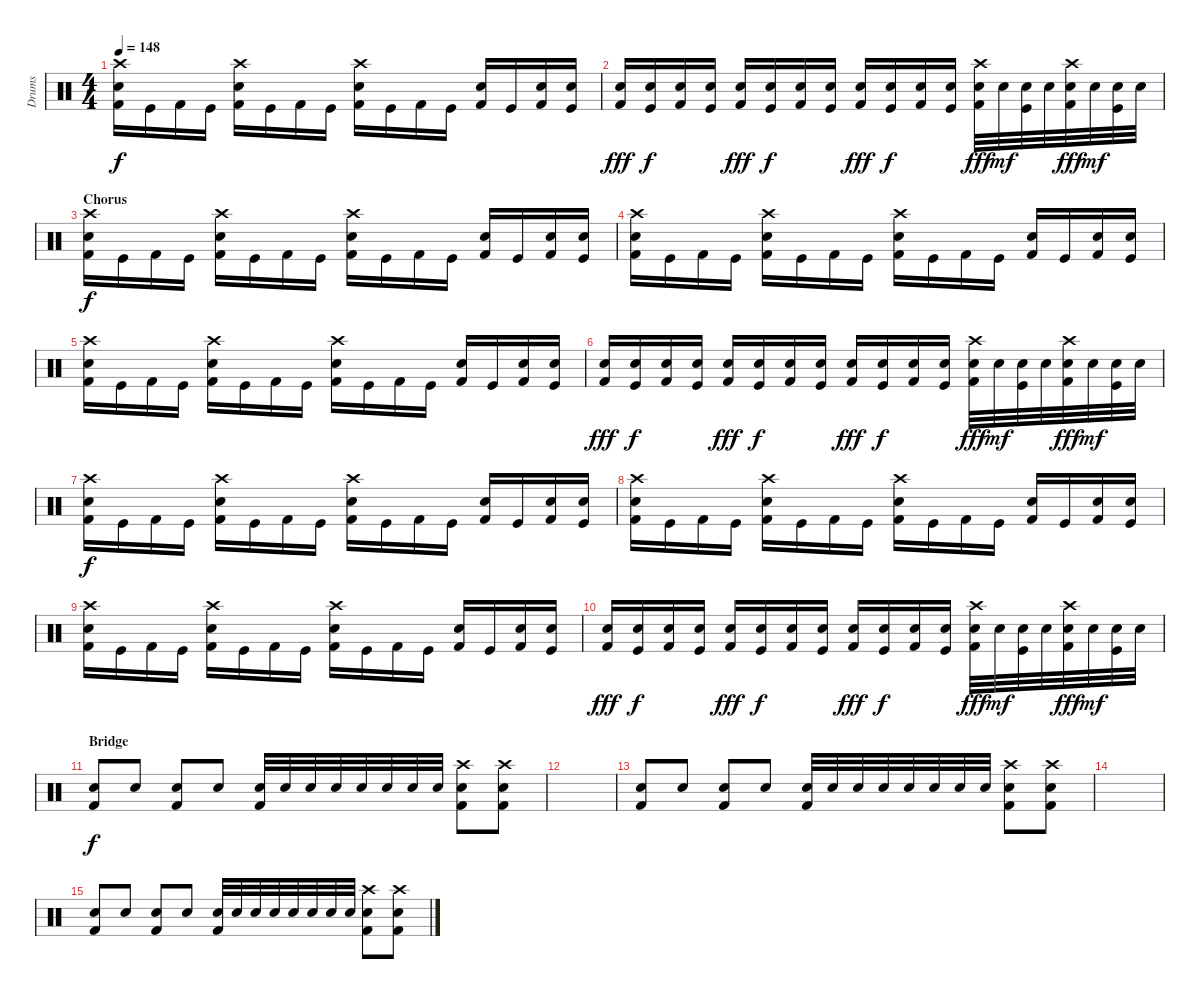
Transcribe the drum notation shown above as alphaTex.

\track ("Drums" "Drums") {instrument percussion}
\staff {score}
\articulation defaults
\ts (4 4)
\tempo 148
\clef neutral
\ks c
("Crash high (hit)" "Snare (hit) 2" "Kick (hit) 2").16{dy f} "Kick (hit)".16 "Kick (hit) 2".16 "Kick (hit)".16 ("Crash high (hit)" "Snare (hit) 2" "Kick (hit) 2").16 "Kick (hit)".16 "Kick (hit) 2".16 "Kick (hit)".16 ("Crash high (hit)" "Snare (hit) 2" "Kick (hit) 2").16 "Kick (hit)".16 "Kick (hit) 2".16 "Kick (hit)".16 ("Snare (hit) 2" "Kick (hit) 2").16 "Kick (hit)".16 ("Snare (hit) 2" "Kick (hit) 2").16 ("Snare (hit) 2" "Kick (hit)").16 |
("Snare (hit) 2" "Kick (hit) 2").16{dy fff} ("Snare (hit) 2" "Kick (hit)").16{dy f} ("Snare (hit) 2" "Kick (hit) 2").16 ("Snare (hit) 2" "Kick (hit)").16 ("Snare (hit) 2" "Kick (hit) 2").16{dy fff} ("Snare (hit) 2" "Kick (hit)").16{dy f} ("Snare (hit) 2" "Kick (hit) 2").16 ("Snare (hit) 2" "Kick (hit)").16 ("Snare (hit) 2" "Kick (hit) 2").16{dy fff} ("Snare (hit) 2" "Kick (hit)").16{dy f} ("Snare (hit) 2" "Kick (hit) 2").16 ("Snare (hit) 2" "Kick (hit)").16 ("Crash high (hit)" "Snare (hit) 2" "Kick (hit) 2").32{dy fff} "Snare (hit) 2".32{dy mf} ("Snare (hit) 2" "Kick (hit)").32 "Snare (hit) 2".32 ("Crash high (hit)" "Snare (hit) 2" "Kick (hit) 2").32{dy fff} "Snare (hit) 2".32{dy mf} ("Snare (hit) 2" "Kick (hit)").32 "Snare (hit) 2".32 |
\section ("" "Chorus")
("Crash high (hit)" "Snare (hit) 2" "Kick (hit) 2").16{dy f} "Kick (hit)".16 "Kick (hit) 2".16 "Kick (hit)".16 ("Crash high (hit)" "Snare (hit) 2" "Kick (hit) 2").16 "Kick (hit)".16 "Kick (hit) 2".16 "Kick (hit)".16 ("Crash high (hit)" "Snare (hit) 2" "Kick (hit) 2").16 "Kick (hit)".16 "Kick (hit) 2".16 "Kick (hit)".16 ("Snare (hit) 2" "Kick (hit) 2").16 "Kick (hit)".16 ("Snare (hit) 2" "Kick (hit) 2").16 ("Snare (hit) 2" "Kick (hit)").16 |
("Crash high (hit)" "Snare (hit) 2" "Kick (hit) 2").16 "Kick (hit)".16 "Kick (hit) 2".16 "Kick (hit)".16 ("Crash high (hit)" "Snare (hit) 2" "Kick (hit) 2").16 "Kick (hit)".16 "Kick (hit) 2".16 "Kick (hit)".16 ("Crash high (hit)" "Snare (hit) 2" "Kick (hit) 2").16 "Kick (hit)".16 "Kick (hit) 2".16 "Kick (hit)".16 ("Snare (hit) 2" "Kick (hit) 2").16 "Kick (hit)".16 ("Snare (hit) 2" "Kick (hit) 2").16 ("Snare (hit) 2" "Kick (hit)").16 |
("Crash high (hit)" "Snare (hit) 2" "Kick (hit) 2").16 "Kick (hit)".16 "Kick (hit) 2".16 "Kick (hit)".16 ("Crash high (hit)" "Snare (hit) 2" "Kick (hit) 2").16 "Kick (hit)".16 "Kick (hit) 2".16 "Kick (hit)".16 ("Crash high (hit)" "Snare (hit) 2" "Kick (hit) 2").16 "Kick (hit)".16 "Kick (hit) 2".16 "Kick (hit)".16 ("Snare (hit) 2" "Kick (hit) 2").16 "Kick (hit)".16 ("Snare (hit) 2" "Kick (hit) 2").16 ("Snare (hit) 2" "Kick (hit)").16 |
("Snare (hit) 2" "Kick (hit) 2").16{dy fff} ("Snare (hit) 2" "Kick (hit)").16{dy f} ("Snare (hit) 2" "Kick (hit) 2").16 ("Snare (hit) 2" "Kick (hit)").16 ("Snare (hit) 2" "Kick (hit) 2").16{dy fff} ("Snare (hit) 2" "Kick (hit)").16{dy f} ("Snare (hit) 2" "Kick (hit) 2").16 ("Snare (hit) 2" "Kick (hit)").16 ("Snare (hit) 2" "Kick (hit) 2").16{dy fff} ("Snare (hit) 2" "Kick (hit)").16{dy f} ("Snare (hit) 2" "Kick (hit) 2").16 ("Snare (hit) 2" "Kick (hit)").16 ("Crash high (hit)" "Snare (hit) 2" "Kick (hit) 2").32{dy fff} "Snare (hit) 2".32{dy mf} ("Snare (hit) 2" "Kick (hit)").32 "Snare (hit) 2".32 ("Crash high (hit)" "Snare (hit) 2" "Kick (hit) 2").32{dy fff} "Snare (hit) 2".32{dy mf} ("Snare (hit) 2" "Kick (hit)").32 "Snare (hit) 2".32 |
("Crash high (hit)" "Snare (hit) 2" "Kick (hit) 2").16{dy f} "Kick (hit)".16 "Kick (hit) 2".16 "Kick (hit)".16 ("Crash high (hit)" "Snare (hit) 2" "Kick (hit) 2").16 "Kick (hit)".16 "Kick (hit) 2".16 "Kick (hit)".16 ("Crash high (hit)" "Snare (hit) 2" "Kick (hit) 2").16 "Kick (hit)".16 "Kick (hit) 2".16 "Kick (hit)".16 ("Snare (hit) 2" "Kick (hit) 2").16 "Kick (hit)".16 ("Snare (hit) 2" "Kick (hit) 2").16 ("Snare (hit) 2" "Kick (hit)").16 |
("Crash high (hit)" "Snare (hit) 2" "Kick (hit) 2").16 "Kick (hit)".16 "Kick (hit) 2".16 "Kick (hit)".16 ("Crash high (hit)" "Snare (hit) 2" "Kick (hit) 2").16 "Kick (hit)".16 "Kick (hit) 2".16 "Kick (hit)".16 ("Crash high (hit)" "Snare (hit) 2" "Kick (hit) 2").16 "Kick (hit)".16 "Kick (hit) 2".16 "Kick (hit)".16 ("Snare (hit) 2" "Kick (hit) 2").16 "Kick (hit)".16 ("Snare (hit) 2" "Kick (hit) 2").16 ("Snare (hit) 2" "Kick (hit)").16 |
("Crash high (hit)" "Snare (hit) 2" "Kick (hit) 2").16 "Kick (hit)".16 "Kick (hit) 2".16 "Kick (hit)".16 ("Crash high (hit)" "Snare (hit) 2" "Kick (hit) 2").16 "Kick (hit)".16 "Kick (hit) 2".16 "Kick (hit)".16 ("Crash high (hit)" "Snare (hit) 2" "Kick (hit) 2").16 "Kick (hit)".16 "Kick (hit) 2".16 "Kick (hit)".16 ("Snare (hit) 2" "Kick (hit) 2").16 "Kick (hit)".16 ("Snare (hit) 2" "Kick (hit) 2").16 ("Snare (hit) 2" "Kick (hit)").16 |
("Snare (hit) 2" "Kick (hit) 2").16{dy fff} ("Snare (hit) 2" "Kick (hit)").16{dy f} ("Snare (hit) 2" "Kick (hit) 2").16 ("Snare (hit) 2" "Kick (hit)").16 ("Snare (hit) 2" "Kick (hit) 2").16{dy fff} ("Snare (hit) 2" "Kick (hit)").16{dy f} ("Snare (hit) 2" "Kick (hit) 2").16 ("Snare (hit) 2" "Kick (hit)").16 ("Snare (hit) 2" "Kick (hit) 2").16{dy fff} ("Snare (hit) 2" "Kick (hit)").16{dy f} ("Snare (hit) 2" "Kick (hit) 2").16 ("Snare (hit) 2" "Kick (hit)").16 ("Crash high (hit)" "Snare (hit) 2" "Kick (hit) 2").32{dy fff} "Snare (hit) 2".32{dy mf} ("Snare (hit) 2" "Kick (hit)").32 "Snare (hit) 2".32 ("Crash high (hit)" "Snare (hit) 2" "Kick (hit) 2").32{dy fff} "Snare (hit) 2".32{dy mf} ("Snare (hit) 2" "Kick (hit)").32 "Snare (hit) 2".32 |
\section ("" "Bridge")
("Snare (hit) 2" "Kick (hit) 2").8{dy f} "Snare (hit) 2".8 ("Snare (hit) 2" "Kick (hit) 2").8 "Snare (hit) 2".8 ("Snare (hit) 2" "Kick (hit) 2").32 "Snare (hit) 2".32 "Snare (hit) 2".32 "Snare (hit) 2".32 "Snare (hit) 2".32 "Snare (hit) 2".32 "Snare (hit) 2".32 "Snare (hit) 2".32 ("Crash high (hit)" "Snare (hit) 2" "Kick (hit) 2").8 ("Crash high (hit)" "Snare (hit) 2" "Kick (hit) 2").8 |
|
("Snare (hit) 2" "Kick (hit) 2").8 "Snare (hit) 2".8 ("Snare (hit) 2" "Kick (hit) 2").8 "Snare (hit) 2".8 ("Snare (hit) 2" "Kick (hit) 2").32 "Snare (hit) 2".32 "Snare (hit) 2".32 "Snare (hit) 2".32 "Snare (hit) 2".32 "Snare (hit) 2".32 "Snare (hit) 2".32 "Snare (hit) 2".32 ("Crash high (hit)" "Snare (hit) 2" "Kick (hit) 2").8 ("Crash high (hit)" "Snare (hit) 2" "Kick (hit) 2").8 |
|
("Snare (hit) 2" "Kick (hit) 2").8 "Snare (hit) 2".8 ("Snare (hit) 2" "Kick (hit) 2").8 "Snare (hit) 2".8 ("Snare (hit) 2" "Kick (hit) 2").32 "Snare (hit) 2".32 "Snare (hit) 2".32 "Snare (hit) 2".32 "Snare (hit) 2".32 "Snare (hit) 2".32 "Snare (hit) 2".32 "Snare (hit) 2".32 ("Crash high (hit)" "Snare (hit) 2" "Kick (hit) 2").8 ("Crash high (hit)" "Snare (hit) 2" "Kick (hit) 2").8
